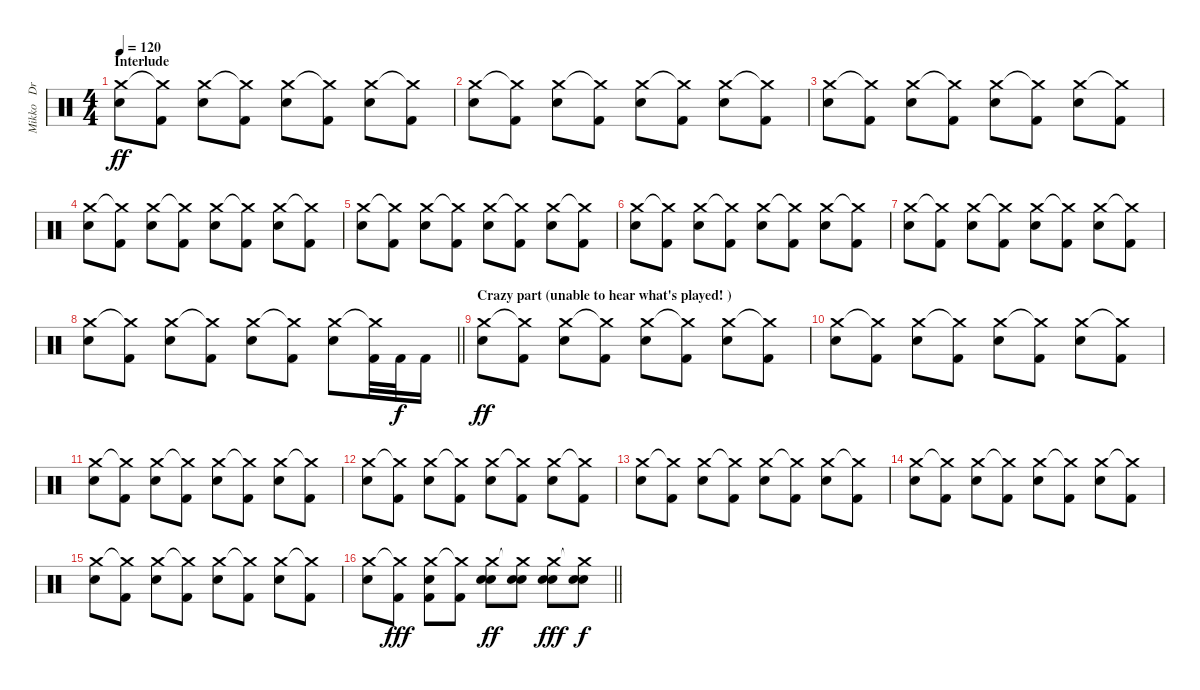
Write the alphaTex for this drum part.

\track ("Mikko   Drums" "Mikko   Dr") {instrument percussion}
\staff {score}
\articulation defaults
\ts (4 4)
\section ("" "Interlude")
\tempo 120
\clef neutral
\ks c
("Crash medium (hit)" "Snare (hit) 2").8{dy ff} ("Crash medium (hit)"{t} "Kick (hit) 2").8 ("Crash medium (hit)" "Snare (hit) 2").8 ("Crash medium (hit)"{t} "Kick (hit) 2").8 ("Crash medium (hit)" "Snare (hit) 2").8 ("Crash medium (hit)"{t} "Kick (hit) 2").8 ("Crash medium (hit)" "Snare (hit) 2").8 ("Crash medium (hit)"{t} "Kick (hit) 2").8 |
("Crash medium (hit)" "Snare (hit) 2").8 ("Crash medium (hit)"{t} "Kick (hit) 2").8 ("Crash medium (hit)" "Snare (hit) 2").8 ("Crash medium (hit)"{t} "Kick (hit) 2").8 ("Crash medium (hit)" "Snare (hit) 2").8 ("Crash medium (hit)"{t} "Kick (hit) 2").8 ("Crash medium (hit)" "Snare (hit) 2").8 ("Crash medium (hit)"{t} "Kick (hit) 2").8 |
("Crash medium (hit)" "Snare (hit) 2").8 ("Crash medium (hit)"{t} "Kick (hit) 2").8 ("Crash medium (hit)" "Snare (hit) 2").8 ("Crash medium (hit)"{t} "Kick (hit) 2").8 ("Crash medium (hit)" "Snare (hit) 2").8 ("Crash medium (hit)"{t} "Kick (hit) 2").8 ("Crash medium (hit)" "Snare (hit) 2").8 ("Crash medium (hit)"{t} "Kick (hit) 2").8 |
("Crash medium (hit)" "Snare (hit) 2").8 ("Crash medium (hit)"{t} "Kick (hit) 2").8 ("Crash medium (hit)" "Snare (hit) 2").8 ("Crash medium (hit)"{t} "Kick (hit) 2").8 ("Crash medium (hit)" "Snare (hit) 2").8 ("Crash medium (hit)"{t} "Kick (hit) 2").8 ("Crash medium (hit)" "Snare (hit) 2").8 ("Crash medium (hit)"{t} "Kick (hit) 2").8 |
("Crash medium (hit)" "Snare (hit) 2").8 ("Crash medium (hit)"{t} "Kick (hit) 2").8 ("Crash medium (hit)" "Snare (hit) 2").8 ("Crash medium (hit)"{t} "Kick (hit) 2").8 ("Crash medium (hit)" "Snare (hit) 2").8 ("Crash medium (hit)"{t} "Kick (hit) 2").8 ("Crash medium (hit)" "Snare (hit) 2").8 ("Crash medium (hit)"{t} "Kick (hit) 2").8 |
("Crash medium (hit)" "Snare (hit) 2").8 ("Crash medium (hit)"{t} "Kick (hit) 2").8 ("Crash medium (hit)" "Snare (hit) 2").8 ("Crash medium (hit)"{t} "Kick (hit) 2").8 ("Crash medium (hit)" "Snare (hit) 2").8 ("Crash medium (hit)"{t} "Kick (hit) 2").8 ("Crash medium (hit)" "Snare (hit) 2").8 ("Crash medium (hit)"{t} "Kick (hit) 2").8 |
("Crash medium (hit)" "Snare (hit) 2").8 ("Crash medium (hit)"{t} "Kick (hit) 2").8 ("Crash medium (hit)" "Snare (hit) 2").8 ("Crash medium (hit)"{t} "Kick (hit) 2").8 ("Crash medium (hit)" "Snare (hit) 2").8 ("Crash medium (hit)"{t} "Kick (hit) 2").8 ("Crash medium (hit)" "Snare (hit) 2").8 ("Crash medium (hit)"{t} "Kick (hit) 2").8 |
\barLineRight lightlight
("Crash medium (hit)" "Snare (hit) 2").8 ("Crash medium (hit)"{t} "Kick (hit) 2").8 ("Crash medium (hit)" "Snare (hit) 2").8 ("Crash medium (hit)"{t} "Kick (hit) 2").8 ("Crash medium (hit)" "Snare (hit) 2").8 ("Crash medium (hit)"{t} "Kick (hit) 2").8 ("Crash medium (hit)" "Snare (hit) 2").8 ("Crash medium (hit)"{t} "Kick (hit) 2").32 "Kick (hit) 2".32{dy f} "Kick (hit) 2".16 |
\section ("" "Crazy part (unable to hear what's played! )")
("Crash medium (hit)" "Snare (hit) 2").8{dy ff} ("Crash medium (hit)"{t} "Kick (hit) 2").8 ("Crash medium (hit)" "Snare (hit) 2").8 ("Crash medium (hit)"{t} "Kick (hit) 2").8 ("Crash medium (hit)" "Snare (hit) 2").8 ("Crash medium (hit)"{t} "Kick (hit) 2").8 ("Crash medium (hit)" "Snare (hit) 2").8 ("Crash medium (hit)"{t} "Kick (hit) 2").8 |
("Crash medium (hit)" "Snare (hit) 2").8 ("Crash medium (hit)"{t} "Kick (hit) 2").8 ("Crash medium (hit)" "Snare (hit) 2").8 ("Crash medium (hit)"{t} "Kick (hit) 2").8 ("Crash medium (hit)" "Snare (hit) 2").8 ("Crash medium (hit)"{t} "Kick (hit) 2").8 ("Crash medium (hit)" "Snare (hit) 2").8 ("Crash medium (hit)"{t} "Kick (hit) 2").8 |
("Crash medium (hit)" "Snare (hit) 2").8 ("Crash medium (hit)"{t} "Kick (hit) 2").8 ("Crash medium (hit)" "Snare (hit) 2").8 ("Crash medium (hit)"{t} "Kick (hit) 2").8 ("Crash medium (hit)" "Snare (hit) 2").8 ("Crash medium (hit)"{t} "Kick (hit) 2").8 ("Crash medium (hit)" "Snare (hit) 2").8 ("Crash medium (hit)"{t} "Kick (hit) 2").8 |
("Crash medium (hit)" "Snare (hit) 2").8 ("Crash medium (hit)"{t} "Kick (hit) 2").8 ("Crash medium (hit)" "Snare (hit) 2").8 ("Crash medium (hit)"{t} "Kick (hit) 2").8 ("Crash medium (hit)" "Snare (hit) 2").8 ("Crash medium (hit)"{t} "Kick (hit) 2").8 ("Crash medium (hit)" "Snare (hit) 2").8 ("Crash medium (hit)"{t} "Kick (hit) 2").8 |
("Crash medium (hit)" "Snare (hit) 2").8 ("Crash medium (hit)"{t} "Kick (hit) 2").8 ("Crash medium (hit)" "Snare (hit) 2").8 ("Crash medium (hit)"{t} "Kick (hit) 2").8 ("Crash medium (hit)" "Snare (hit) 2").8 ("Crash medium (hit)"{t} "Kick (hit) 2").8 ("Crash medium (hit)" "Snare (hit) 2").8 ("Crash medium (hit)"{t} "Kick (hit) 2").8 |
("Crash medium (hit)" "Snare (hit) 2").8 ("Crash medium (hit)"{t} "Kick (hit) 2").8 ("Crash medium (hit)" "Snare (hit) 2").8 ("Crash medium (hit)"{t} "Kick (hit) 2").8 ("Crash medium (hit)" "Snare (hit) 2").8 ("Crash medium (hit)"{t} "Kick (hit) 2").8 ("Crash medium (hit)" "Snare (hit) 2").8 ("Crash medium (hit)"{t} "Kick (hit) 2").8 |
("Crash medium (hit)" "Snare (hit) 2").8 ("Crash medium (hit)"{t} "Kick (hit) 2").8 ("Crash medium (hit)" "Snare (hit) 2").8 ("Crash medium (hit)"{t} "Kick (hit) 2").8 ("Crash medium (hit)" "Snare (hit) 2").8 ("Crash medium (hit)"{t} "Kick (hit) 2").8 ("Crash medium (hit)" "Snare (hit) 2").8 ("Crash medium (hit)"{t} "Kick (hit) 2").8 |
\barLineRight lightlight
("Crash medium (hit)" "Snare (hit) 2").8 ("Crash medium (hit)"{t} "Kick (hit) 2").8{dy fff} ("Crash medium (hit)" "Snare (hit) 2" "Kick (hit) 2").8 ("Crash medium (hit)"{t} "Kick (hit) 2").8 ("Crash medium (hit)" "Snare (hit) 2" "Snare (hit) 2").8{bd 120 dy ff} ("Crash medium (hit)"{t} "Snare (hit) 2" "Snare (hit) 2").8{bd 120} ("Crash medium (hit)" "Snare (hit) 2" "Snare (hit) 2").8{bd 120 dy fff} ("Crash medium (hit)"{t} "Snare (hit) 2" "Snare (hit) 2").8{bd 120 dy f}
